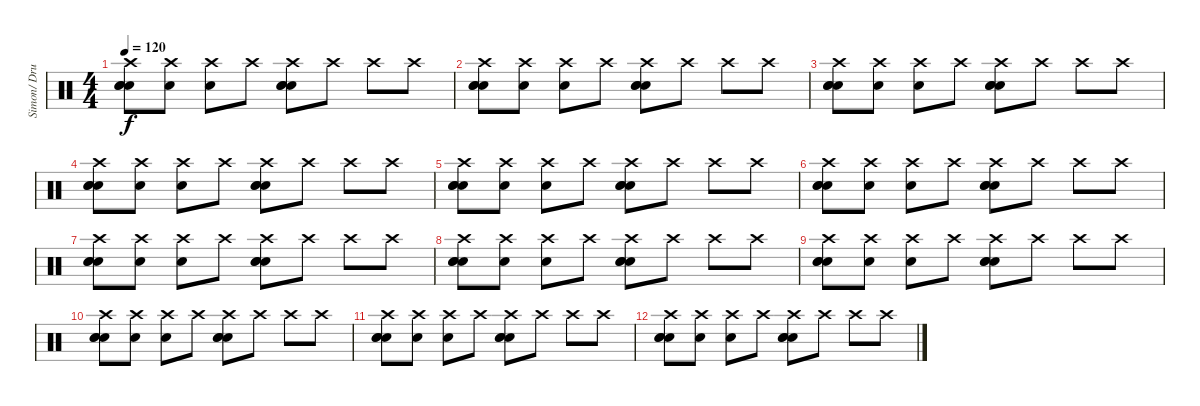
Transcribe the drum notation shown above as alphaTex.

\track ("Simon/ Drums" "Simon/ Dru") {instrument percussion}
\staff {score}
\articulation defaults
\ts (4 4)
\tempo 120
\clef neutral
\ks c
("Crash high (hit)" "Snare (hit) 2" "Snare (hit) 2" "Snare (hit) 2").8{dy f} ("Crash high (hit)" "Electric Snare (hit)").8 ("Crash high (hit)" "Electric Snare (hit)").8 "Crash high (hit)".8 ("Crash high (hit)" "Snare (hit) 2" "Snare (hit) 2" "Snare (hit) 2").8 "Crash high (hit)".8 "Crash high (hit)".8 "Crash high (hit)".8 |
("Crash high (hit)" "Snare (hit) 2" "Snare (hit) 2" "Snare (hit) 2").8 ("Crash high (hit)" "Electric Snare (hit)").8 ("Crash high (hit)" "Electric Snare (hit)").8 "Crash high (hit)".8 ("Crash high (hit)" "Snare (hit) 2" "Snare (hit) 2" "Snare (hit) 2").8 "Crash high (hit)".8 "Crash high (hit)".8 "Crash high (hit)".8 |
("Crash high (hit)" "Snare (hit) 2" "Snare (hit) 2" "Snare (hit) 2").8 ("Crash high (hit)" "Electric Snare (hit)").8 ("Crash high (hit)" "Electric Snare (hit)").8 "Crash high (hit)".8 ("Crash high (hit)" "Snare (hit) 2" "Snare (hit) 2" "Snare (hit) 2").8 "Crash high (hit)".8 "Crash high (hit)".8 "Crash high (hit)".8 |
("Crash high (hit)" "Snare (hit) 2" "Snare (hit) 2" "Snare (hit) 2").8 ("Crash high (hit)" "Electric Snare (hit)").8 ("Crash high (hit)" "Electric Snare (hit)").8 "Crash high (hit)".8 ("Crash high (hit)" "Snare (hit) 2" "Snare (hit) 2" "Snare (hit) 2").8 "Crash high (hit)".8 "Crash high (hit)".8 "Crash high (hit)".8 |
("Crash high (hit)" "Snare (hit) 2" "Snare (hit) 2" "Snare (hit) 2").8 ("Crash high (hit)" "Electric Snare (hit)").8 ("Crash high (hit)" "Electric Snare (hit)").8 "Crash high (hit)".8 ("Crash high (hit)" "Snare (hit) 2" "Snare (hit) 2" "Snare (hit) 2").8 "Crash high (hit)".8 "Crash high (hit)".8 "Crash high (hit)".8 |
("Crash high (hit)" "Snare (hit) 2" "Snare (hit) 2" "Snare (hit) 2").8 ("Crash high (hit)" "Electric Snare (hit)").8 ("Crash high (hit)" "Electric Snare (hit)").8 "Crash high (hit)".8 ("Crash high (hit)" "Snare (hit) 2" "Snare (hit) 2" "Snare (hit) 2").8 "Crash high (hit)".8 "Crash high (hit)".8 "Crash high (hit)".8 |
("Crash high (hit)" "Snare (hit) 2" "Snare (hit) 2" "Snare (hit) 2").8 ("Crash high (hit)" "Electric Snare (hit)").8 ("Crash high (hit)" "Electric Snare (hit)").8 "Crash high (hit)".8 ("Crash high (hit)" "Snare (hit) 2" "Snare (hit) 2" "Snare (hit) 2").8 "Crash high (hit)".8 "Crash high (hit)".8 "Crash high (hit)".8 |
("Crash high (hit)" "Snare (hit) 2" "Snare (hit) 2" "Snare (hit) 2").8 ("Crash high (hit)" "Electric Snare (hit)").8 ("Crash high (hit)" "Electric Snare (hit)").8 "Crash high (hit)".8 ("Crash high (hit)" "Snare (hit) 2" "Snare (hit) 2" "Snare (hit) 2").8 "Crash high (hit)".8 "Crash high (hit)".8 "Crash high (hit)".8 |
("Crash high (hit)" "Snare (hit) 2" "Snare (hit) 2" "Snare (hit) 2").8 ("Crash high (hit)" "Electric Snare (hit)").8 ("Crash high (hit)" "Electric Snare (hit)").8 "Crash high (hit)".8 ("Crash high (hit)" "Snare (hit) 2" "Snare (hit) 2" "Snare (hit) 2").8 "Crash high (hit)".8 "Crash high (hit)".8 "Crash high (hit)".8 |
("Crash high (hit)" "Snare (hit) 2" "Snare (hit) 2" "Snare (hit) 2").8 ("Crash high (hit)" "Electric Snare (hit)").8 ("Crash high (hit)" "Electric Snare (hit)").8 "Crash high (hit)".8 ("Crash high (hit)" "Snare (hit) 2" "Snare (hit) 2" "Snare (hit) 2").8 "Crash high (hit)".8 "Crash high (hit)".8 "Crash high (hit)".8 |
("Crash high (hit)" "Snare (hit) 2" "Snare (hit) 2" "Snare (hit) 2").8 ("Crash high (hit)" "Electric Snare (hit)").8 ("Crash high (hit)" "Electric Snare (hit)").8 "Crash high (hit)".8 ("Crash high (hit)" "Snare (hit) 2" "Snare (hit) 2" "Snare (hit) 2").8 "Crash high (hit)".8 "Crash high (hit)".8 "Crash high (hit)".8 |
("Crash high (hit)" "Snare (hit) 2" "Snare (hit) 2" "Snare (hit) 2").8 ("Crash high (hit)" "Electric Snare (hit)").8 ("Crash high (hit)" "Electric Snare (hit)").8 "Crash high (hit)".8 ("Crash high (hit)" "Snare (hit) 2" "Snare (hit) 2" "Snare (hit) 2").8 "Crash high (hit)".8 "Crash high (hit)".8 "Crash high (hit)".8
